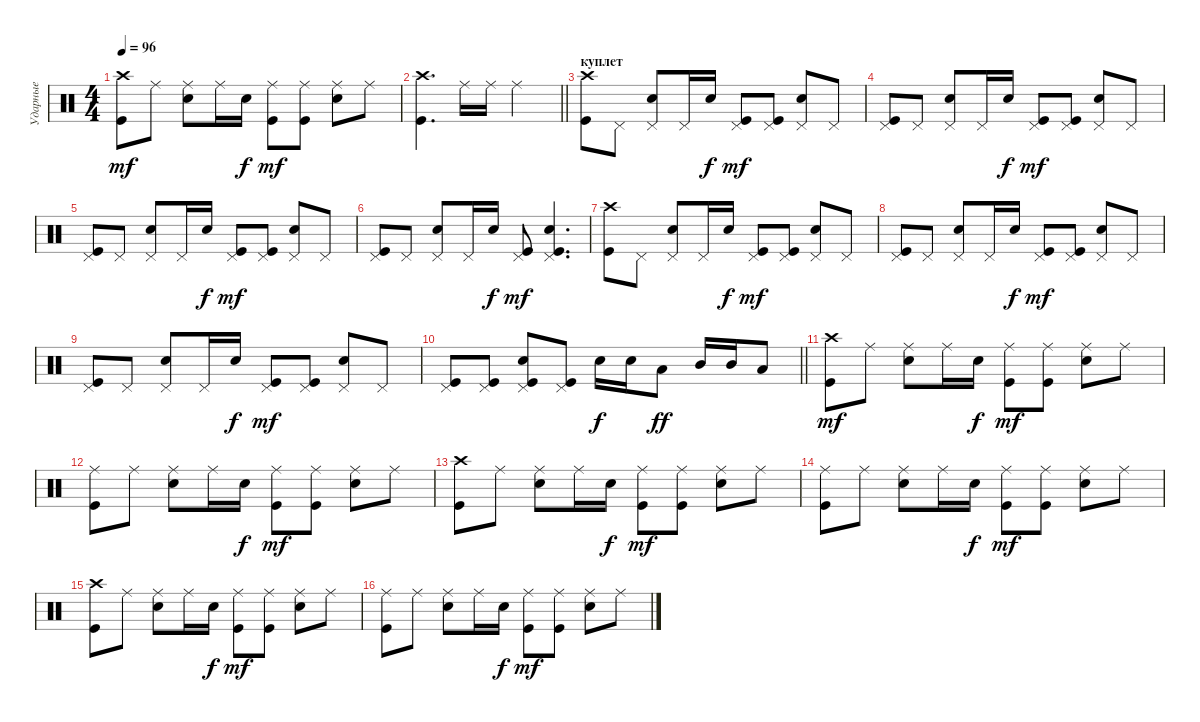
\track ("Ударные" "Ударные") {instrument percussion}
\staff {score}
\articulation defaults
\ts (4 4)
\tempo 96
\clef neutral
\ks c
("Kick (hit)" "Crash high (hit)").8{dy mf} "Ride (middle)".8 ("Electric Snare (hit)" "Ride (middle)").8 "Ride (middle)".16 "Electric Snare (hit)".16{dy f} ("Kick (hit)" "Ride (middle)").8{dy mf} ("Kick (hit)" "Ride (middle)").8 ("Electric Snare (hit)" "Ride (middle)").8 "Ride (middle)".8 |
\barLineRight lightlight
("Kick (hit)" "Crash high (hit)").4{d} "Ride (middle)".16 "Ride (middle)".16 "Ride (middle)".2 |
\section ("" "куплет")
("Kick (hit)" "Crash high (hit)").8 "Pedal Hi-Hat (hit)".8 ("Electric Snare (hit)" "Pedal Hi-Hat (hit)").8 "Pedal Hi-Hat (hit)".16 "Electric Snare (hit)".16{dy f} ("Kick (hit)" "Pedal Hi-Hat (hit)").8{dy mf} ("Kick (hit)" "Pedal Hi-Hat (hit)").8 ("Electric Snare (hit)" "Pedal Hi-Hat (hit)").8 "Pedal Hi-Hat (hit)".8 |
("Kick (hit)" "Pedal Hi-Hat (hit)").8 "Pedal Hi-Hat (hit)".8 ("Electric Snare (hit)" "Pedal Hi-Hat (hit)").8 "Pedal Hi-Hat (hit)".16 "Electric Snare (hit)".16{dy f} ("Kick (hit)" "Pedal Hi-Hat (hit)").8{dy mf} ("Kick (hit)" "Pedal Hi-Hat (hit)").8 ("Electric Snare (hit)" "Pedal Hi-Hat (hit)").8 "Pedal Hi-Hat (hit)".8 |
("Kick (hit)" "Pedal Hi-Hat (hit)").8 "Pedal Hi-Hat (hit)".8 ("Electric Snare (hit)" "Pedal Hi-Hat (hit)").8 "Pedal Hi-Hat (hit)".16 "Electric Snare (hit)".16{dy f} ("Kick (hit)" "Pedal Hi-Hat (hit)").8{dy mf} ("Kick (hit)" "Pedal Hi-Hat (hit)").8 ("Electric Snare (hit)" "Pedal Hi-Hat (hit)").8 "Pedal Hi-Hat (hit)".8 |
("Kick (hit)" "Pedal Hi-Hat (hit)").8 "Pedal Hi-Hat (hit)".8 ("Electric Snare (hit)" "Pedal Hi-Hat (hit)").8 "Pedal Hi-Hat (hit)".16 "Electric Snare (hit)".16{dy f} ("Kick (hit)" "Pedal Hi-Hat (hit)").8{dy mf} ("Kick (hit)" "Electric Snare (hit)" "Pedal Hi-Hat (hit)").4{d} |
("Kick (hit)" "Crash high (hit)").8 "Pedal Hi-Hat (hit)".8 ("Electric Snare (hit)" "Pedal Hi-Hat (hit)").8 "Pedal Hi-Hat (hit)".16 "Electric Snare (hit)".16{dy f} ("Kick (hit)" "Pedal Hi-Hat (hit)").8{dy mf} ("Kick (hit)" "Pedal Hi-Hat (hit)").8 ("Electric Snare (hit)" "Pedal Hi-Hat (hit)").8 "Pedal Hi-Hat (hit)".8 |
("Kick (hit)" "Pedal Hi-Hat (hit)").8 "Pedal Hi-Hat (hit)".8 ("Electric Snare (hit)" "Pedal Hi-Hat (hit)").8 "Pedal Hi-Hat (hit)".16 "Electric Snare (hit)".16{dy f} ("Kick (hit)" "Pedal Hi-Hat (hit)").8{dy mf} ("Kick (hit)" "Pedal Hi-Hat (hit)").8 ("Electric Snare (hit)" "Pedal Hi-Hat (hit)").8 "Pedal Hi-Hat (hit)".8 |
("Kick (hit)" "Pedal Hi-Hat (hit)").8 "Pedal Hi-Hat (hit)".8 ("Electric Snare (hit)" "Pedal Hi-Hat (hit)").8 "Pedal Hi-Hat (hit)".16 "Electric Snare (hit)".16{dy f} ("Kick (hit)" "Pedal Hi-Hat (hit)").8{dy mf} ("Kick (hit)" "Pedal Hi-Hat (hit)").8 ("Electric Snare (hit)" "Pedal Hi-Hat (hit)").8 "Pedal Hi-Hat (hit)".8 |
\barLineRight lightlight
("Kick (hit)" "Pedal Hi-Hat (hit)").8 ("Kick (hit)" "Pedal Hi-Hat (hit)").8 ("Kick (hit)" "Electric Snare (hit)" "Pedal Hi-Hat (hit)").8 ("Kick (hit)" "Pedal Hi-Hat (hit)").8 "Electric Snare (hit)".16{dy f} "Electric Snare (hit)".16 "Low Floor Tom (hit)".8{dy ff} "Mid Tom (hit)".16 "Mid Tom (hit)".16 "Low Floor Tom (hit)".8 |
("Kick (hit)" "Crash high (hit)").8{dy mf} "Ride (middle)".8 ("Electric Snare (hit)" "Ride (middle)").8 "Ride (middle)".16 "Electric Snare (hit)".16{dy f} ("Kick (hit)" "Ride (middle)").8{dy mf} ("Kick (hit)" "Ride (middle)").8 ("Electric Snare (hit)" "Ride (middle)").8 "Ride (middle)".8 |
("Kick (hit)" "Ride (middle)").8 "Ride (middle)".8 ("Electric Snare (hit)" "Ride (middle)").8 "Ride (middle)".16 "Electric Snare (hit)".16{dy f} ("Kick (hit)" "Ride (middle)").8{dy mf} ("Kick (hit)" "Ride (middle)").8 ("Electric Snare (hit)" "Ride (middle)").8 "Ride (middle)".8 |
("Kick (hit)" "Crash high (hit)").8 "Ride (middle)".8 ("Electric Snare (hit)" "Ride (middle)").8 "Ride (middle)".16 "Electric Snare (hit)".16{dy f} ("Kick (hit)" "Ride (middle)").8{dy mf} ("Kick (hit)" "Ride (middle)").8 ("Electric Snare (hit)" "Ride (middle)").8 "Ride (middle)".8 |
("Kick (hit)" "Ride (middle)").8 "Ride (middle)".8 ("Electric Snare (hit)" "Ride (middle)").8 "Ride (middle)".16 "Electric Snare (hit)".16{dy f} ("Kick (hit)" "Ride (middle)").8{dy mf} ("Kick (hit)" "Ride (middle)").8 ("Electric Snare (hit)" "Ride (middle)").8 "Ride (middle)".8 |
("Kick (hit)" "Crash high (hit)").8 "Ride (middle)".8 ("Electric Snare (hit)" "Ride (middle)").8 "Ride (middle)".16 "Electric Snare (hit)".16{dy f} ("Kick (hit)" "Ride (middle)").8{dy mf} ("Kick (hit)" "Ride (middle)").8 ("Electric Snare (hit)" "Ride (middle)").8 "Ride (middle)".8 |
("Kick (hit)" "Ride (middle)").8 "Ride (middle)".8 ("Electric Snare (hit)" "Ride (middle)").8 "Ride (middle)".16 "Electric Snare (hit)".16{dy f} ("Kick (hit)" "Ride (middle)").8{dy mf} ("Kick (hit)" "Ride (middle)").8 ("Electric Snare (hit)" "Ride (middle)").8 "Ride (middle)".8
